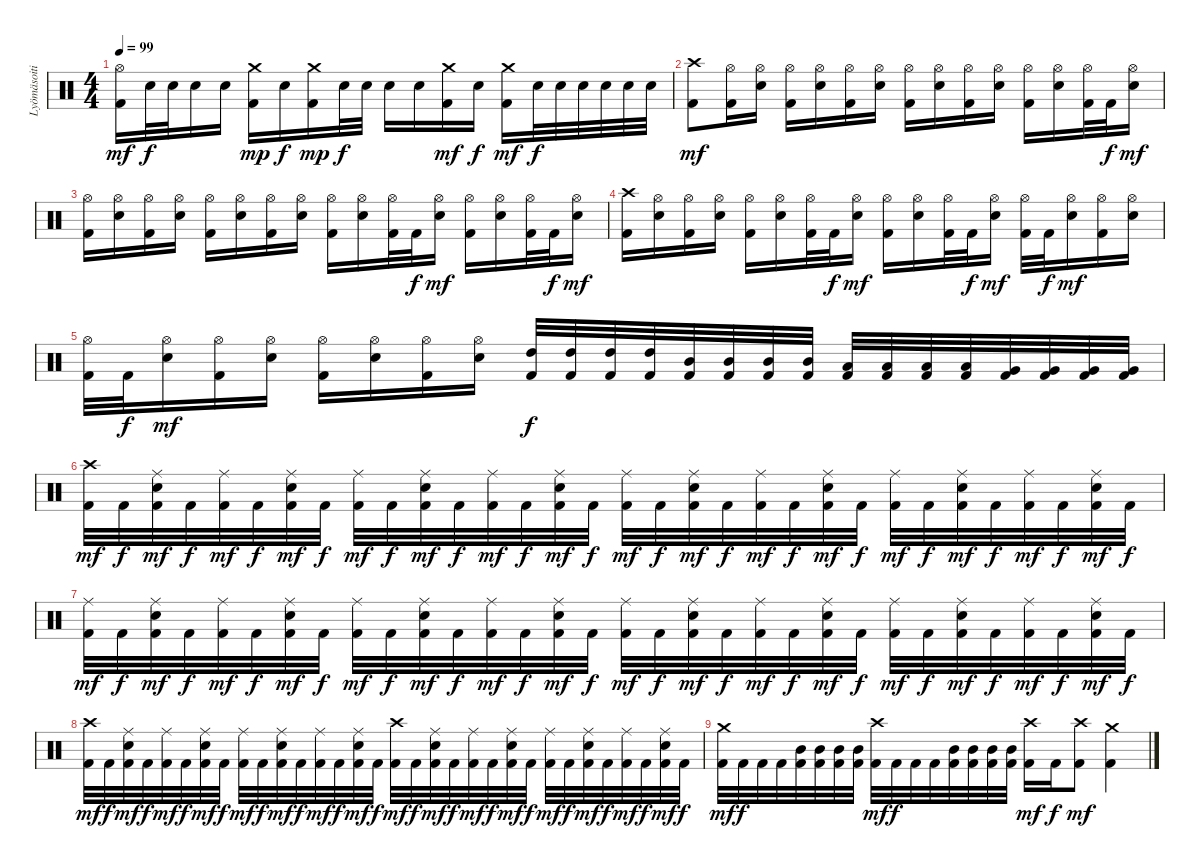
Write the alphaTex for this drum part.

\track ("Lyömäsoitin" "Lyömäsoiti") {instrument percussion}
\staff {score}
\articulation defaults
\ts (4 4)
\tempo 99
\clef neutral
\ks c
("Hi-Hat (open)" "Kick (hit) 2").16{dy mf} "Electric Snare (hit)".32{dy f} "Electric Snare (hit)".32 "Electric Snare (hit)".16 "Electric Snare (hit)".16 ("Crash medium (hit)" "Kick (hit) 2").16{dy mp} "Electric Snare (hit)".16{dy f} ("Crash medium (hit)" "Kick (hit) 2").16{dy mp} "Electric Snare (hit)".32{dy f} "Electric Snare (hit)".32 "Electric Snare (hit)".16 "Electric Snare (hit)".16 ("Crash medium (hit)" "Kick (hit) 2").16{dy mf} "Electric Snare (hit)".16{dy f} ("Crash medium (hit)" "Kick (hit) 2").16{dy mf} "Electric Snare (hit)".32{dy f} "Electric Snare (hit)".32 "Electric Snare (hit)".32 "Electric Snare (hit)".32 "Electric Snare (hit)".32 "Electric Snare (hit)".32 |
("Crash high (hit)" "Kick (hit) 2").8{dy mf} ("Hi-Hat (open)" "Kick (hit) 2").16 ("Electric Snare (hit)" "Hi-Hat (open)").16 ("Hi-Hat (open)" "Kick (hit) 2").16 ("Electric Snare (hit)" "Hi-Hat (open)").16 ("Hi-Hat (open)" "Kick (hit) 2").16 ("Electric Snare (hit)" "Hi-Hat (open)").16 ("Hi-Hat (open)" "Kick (hit) 2").16 ("Electric Snare (hit)" "Hi-Hat (open)").16 ("Hi-Hat (open)" "Kick (hit) 2").16 ("Electric Snare (hit)" "Hi-Hat (open)").16 ("Hi-Hat (open)" "Kick (hit) 2").16 ("Electric Snare (hit)" "Hi-Hat (open)").16 ("Hi-Hat (open)" "Kick (hit) 2").32 "Kick (hit) 2".32{dy f} ("Electric Snare (hit)" "Hi-Hat (open)").16{dy mf} |
("Hi-Hat (open)" "Kick (hit) 2").16 ("Electric Snare (hit)" "Hi-Hat (open)").16 ("Hi-Hat (open)" "Kick (hit) 2").16 ("Electric Snare (hit)" "Hi-Hat (open)").16 ("Hi-Hat (open)" "Kick (hit) 2").16 ("Electric Snare (hit)" "Hi-Hat (open)").16 ("Hi-Hat (open)" "Kick (hit) 2").16 ("Electric Snare (hit)" "Hi-Hat (open)").16 ("Hi-Hat (open)" "Kick (hit) 2").16 ("Electric Snare (hit)" "Hi-Hat (open)").16 ("Hi-Hat (open)" "Kick (hit) 2").32 "Kick (hit) 2".32{dy f} ("Electric Snare (hit)" "Hi-Hat (open)").16{dy mf} ("Hi-Hat (open)" "Kick (hit) 2").16 ("Electric Snare (hit)" "Hi-Hat (open)").16 ("Hi-Hat (open)" "Kick (hit) 2").32 "Kick (hit) 2".32{dy f} ("Electric Snare (hit)" "Hi-Hat (open)").16{dy mf} |
("Crash high (hit)" "Kick (hit) 2").16 ("Electric Snare (hit)" "Hi-Hat (open)").16 ("Hi-Hat (open)" "Kick (hit) 2").16 ("Electric Snare (hit)" "Hi-Hat (open)").16 ("Hi-Hat (open)" "Kick (hit) 2").16 ("Electric Snare (hit)" "Hi-Hat (open)").16 ("Hi-Hat (open)" "Kick (hit) 2").32 "Kick (hit) 2".32{dy f} ("Electric Snare (hit)" "Hi-Hat (open)").16{dy mf} ("Hi-Hat (open)" "Kick (hit) 2").16 ("Electric Snare (hit)" "Hi-Hat (open)").16 ("Hi-Hat (open)" "Kick (hit) 2").32 "Kick (hit) 2".32{dy f} ("Electric Snare (hit)" "Hi-Hat (open)").16{dy mf} ("Hi-Hat (open)" "Kick (hit) 2").32 "Kick (hit) 2".32{dy f} ("Electric Snare (hit)" "Hi-Hat (open)").16{dy mf} ("Hi-Hat (open)" "Kick (hit) 2").16 ("Electric Snare (hit)" "Hi-Hat (open)").16 |
("Hi-Hat (open)" "Kick (hit) 2").32 "Kick (hit) 2".32{dy f} ("Electric Snare (hit)" "Hi-Hat (open)").16{dy mf} ("Hi-Hat (open)" "Kick (hit) 2").16 ("Electric Snare (hit)" "Hi-Hat (open)").16 ("Hi-Hat (open)" "Kick (hit) 2").16 ("Electric Snare (hit)" "Hi-Hat (open)").16 ("Hi-Hat (open)" "Kick (hit) 2").16 ("Electric Snare (hit)" "Hi-Hat (open)").16 ("High Tom (hit)" "Kick (hit) 2").32{dy f} ("High Tom (hit)" "Kick (hit) 2").32 ("High Tom (hit)" "Kick (hit) 2").32 ("High Tom (hit)" "Kick (hit) 2").32 ("Mid Tom (hit)" "Kick (hit) 2").32 ("Mid Tom (hit)" "Kick (hit) 2").32 ("Mid Tom (hit)" "Kick (hit) 2").32 ("Mid Tom (hit)" "Kick (hit) 2").32 ("Low Tom (hit)" "Kick (hit) 2").32 ("Low Tom (hit)" "Kick (hit) 2").32 ("Low Tom (hit)" "Kick (hit) 2").32 ("Low Tom (hit)" "Kick (hit) 2").32 ("Very Low Tom (hit)" "Kick (hit) 2").32 ("Very Low Tom (hit)" "Kick (hit) 2").32 ("Very Low Tom (hit)" "Kick (hit) 2").32 ("Very Low Tom (hit)" "Kick (hit) 2").32 |
("Crash high (hit)" "Kick (hit) 2").32{dy mf} "Kick (hit) 2".32{dy f} ("Electric Snare (hit)" "Ride (middle)" "Kick (hit) 2").32{dy mf} "Kick (hit) 2".32{dy f} ("Ride (middle)" "Kick (hit) 2").32{dy mf} "Kick (hit) 2".32{dy f} ("Electric Snare (hit)" "Ride (middle)" "Kick (hit) 2").32{dy mf} "Kick (hit) 2".32{dy f} ("Ride (middle)" "Kick (hit) 2").32{dy mf} "Kick (hit) 2".32{dy f} ("Electric Snare (hit)" "Ride (middle)" "Kick (hit) 2").32{dy mf} "Kick (hit) 2".32{dy f} ("Ride (middle)" "Kick (hit) 2").32{dy mf} "Kick (hit) 2".32{dy f} ("Electric Snare (hit)" "Ride (middle)" "Kick (hit) 2").32{dy mf} "Kick (hit) 2".32{dy f} ("Ride (middle)" "Kick (hit) 2").32{dy mf} "Kick (hit) 2".32{dy f} ("Electric Snare (hit)" "Ride (middle)" "Kick (hit) 2").32{dy mf} "Kick (hit) 2".32{dy f} ("Ride (middle)" "Kick (hit) 2").32{dy mf} "Kick (hit) 2".32{dy f} ("Electric Snare (hit)" "Ride (middle)" "Kick (hit) 2").32{dy mf} "Kick (hit) 2".32{dy f} ("Ride (middle)" "Kick (hit) 2").32{dy mf} "Kick (hit) 2".32{dy f} ("Electric Snare (hit)" "Ride (middle)" "Kick (hit) 2").32{dy mf} "Kick (hit) 2".32{dy f} ("Ride (middle)" "Kick (hit) 2").32{dy mf} "Kick (hit) 2".32{dy f} ("Electric Snare (hit)" "Ride (middle)" "Kick (hit) 2").32{dy mf} "Kick (hit) 2".32{dy f} |
("Ride (middle)" "Kick (hit) 2").32{dy mf} "Kick (hit) 2".32{dy f} ("Electric Snare (hit)" "Ride (middle)" "Kick (hit) 2").32{dy mf} "Kick (hit) 2".32{dy f} ("Ride (middle)" "Kick (hit) 2").32{dy mf} "Kick (hit) 2".32{dy f} ("Electric Snare (hit)" "Ride (middle)" "Kick (hit) 2").32{dy mf} "Kick (hit) 2".32{dy f} ("Ride (middle)" "Kick (hit) 2").32{dy mf} "Kick (hit) 2".32{dy f} ("Electric Snare (hit)" "Ride (middle)" "Kick (hit) 2").32{dy mf} "Kick (hit) 2".32{dy f} ("Ride (middle)" "Kick (hit) 2").32{dy mf} "Kick (hit) 2".32{dy f} ("Electric Snare (hit)" "Ride (middle)" "Kick (hit) 2").32{dy mf} "Kick (hit) 2".32{dy f} ("Ride (middle)" "Kick (hit) 2").32{dy mf} "Kick (hit) 2".32{dy f} ("Electric Snare (hit)" "Ride (middle)" "Kick (hit) 2").32{dy mf} "Kick (hit) 2".32{dy f} ("Ride (middle)" "Kick (hit) 2").32{dy mf} "Kick (hit) 2".32{dy f} ("Electric Snare (hit)" "Ride (middle)" "Kick (hit) 2").32{dy mf} "Kick (hit) 2".32{dy f} ("Ride (middle)" "Kick (hit) 2").32{dy mf} "Kick (hit) 2".32{dy f} ("Electric Snare (hit)" "Ride (middle)" "Kick (hit) 2").32{dy mf} "Kick (hit) 2".32{dy f} ("Ride (middle)" "Kick (hit) 2").32{dy mf} "Kick (hit) 2".32{dy f} ("Electric Snare (hit)" "Ride (middle)" "Kick (hit) 2").32{dy mf} "Kick (hit) 2".32{dy f} |
("Crash high (hit)" "Kick (hit) 2").32{dy mf} "Kick (hit) 2".32{dy f} ("Electric Snare (hit)" "Ride (middle)" "Kick (hit) 2").32{dy mf} "Kick (hit) 2".32{dy f} ("Ride (middle)" "Kick (hit) 2").32{dy mf} "Kick (hit) 2".32{dy f} ("Electric Snare (hit)" "Ride (middle)" "Kick (hit) 2").32{dy mf} "Kick (hit) 2".32{dy f} ("Ride (middle)" "Kick (hit) 2").32{dy mf} "Kick (hit) 2".32{dy f} ("Electric Snare (hit)" "Ride (middle)" "Kick (hit) 2").32{dy mf} "Kick (hit) 2".32{dy f} ("Ride (middle)" "Kick (hit) 2").32{dy mf} "Kick (hit) 2".32{dy f} ("Electric Snare (hit)" "Ride (middle)" "Kick (hit) 2").32{dy mf} "Kick (hit) 2".32{dy f} ("Crash high (hit)" "Kick (hit) 2").32{dy mf} "Kick (hit) 2".32{dy f} ("Electric Snare (hit)" "Ride (middle)" "Kick (hit) 2").32{dy mf} "Kick (hit) 2".32{dy f} ("Ride (middle)" "Kick (hit) 2").32{dy mf} "Kick (hit) 2".32{dy f} ("Electric Snare (hit)" "Ride (middle)" "Kick (hit) 2").32{dy mf} "Kick (hit) 2".32{dy f} ("Ride (middle)" "Kick (hit) 2").32{dy mf} "Kick (hit) 2".32{dy f} ("Electric Snare (hit)" "Ride (middle)" "Kick (hit) 2").32{dy mf} "Kick (hit) 2".32{dy f} ("Ride (middle)" "Kick (hit) 2").32{dy mf} "Kick (hit) 2".32{dy f} ("Electric Snare (hit)" "Ride (middle)" "Kick (hit) 2").32{dy mf} "Kick (hit) 2".32{dy f} |
("Crash medium (hit)" "Kick (hit) 2").32{dy mf} "Kick (hit) 2".32{dy f} "Kick (hit) 2".32 "Kick (hit) 2".32 ("Mid Tom (hit)" "Kick (hit) 2").32 ("Mid Tom (hit)" "Kick (hit) 2").32 ("Mid Tom (hit)" "Kick (hit) 2").32 ("Mid Tom (hit)" "Kick (hit) 2").32 ("Crash high (hit)" "Kick (hit) 2").32{dy mf} "Kick (hit) 2".32{dy f} "Kick (hit) 2".32 "Kick (hit) 2".32 ("Mid Tom (hit)" "Kick (hit) 2").32 ("Mid Tom (hit)" "Kick (hit) 2").32 ("Mid Tom (hit)" "Kick (hit) 2").32 ("Mid Tom (hit)" "Kick (hit) 2").32 ("Crash high (hit)" "Kick (hit) 2").16{dy mf} "Kick (hit) 2".16{dy f} ("Crash high (hit)" "Kick (hit) 2").8{dy mf} ("Crash medium (hit)" "Kick (hit) 2").4
